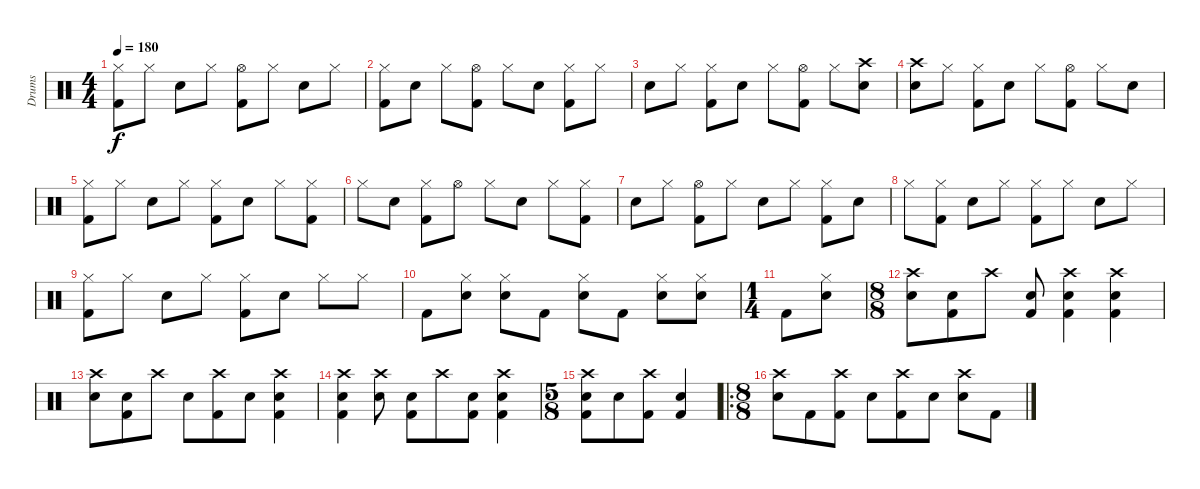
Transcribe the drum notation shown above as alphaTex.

\track ("Drums" "Drums") {instrument percussion}
\staff {score}
\articulation defaults
\ts (4 4)
\tempo 180
\clef neutral
\ks c
("Hi-Hat (closed)" "Kick (hit) 2").8{dy f} "Hi-Hat (closed)".8 "Electric Snare (hit)".8 "Hi-Hat (closed)".8 ("Hi-Hat (open)" "Kick (hit) 2").8 "Hi-Hat (closed)".8 "Electric Snare (hit)".8 "Hi-Hat (closed)".8 |
("Hi-Hat (closed)" "Kick (hit) 2").8 "Electric Snare (hit)".8 "Hi-Hat (closed)".8 ("Hi-Hat (open)" "Kick (hit) 2").8 "Hi-Hat (closed)".8 "Electric Snare (hit)".8 ("Hi-Hat (closed)" "Kick (hit) 2").8 "Hi-Hat (closed)".8 |
"Electric Snare (hit)".8 "Hi-Hat (closed)".8 ("Hi-Hat (closed)" "Kick (hit) 2").8 "Electric Snare (hit)".8 "Hi-Hat (closed)".8 ("Hi-Hat (open)" "Kick (hit) 2").8 "Hi-Hat (closed)".8 ("Crash high (hit)" "Electric Snare (hit)").8 |
("Crash high (hit)" "Electric Snare (hit)").8 "Hi-Hat (closed)".8 ("Hi-Hat (closed)" "Kick (hit) 2").8 "Electric Snare (hit)".8 "Hi-Hat (closed)".8 ("Hi-Hat (open)" "Kick (hit) 2").8 "Hi-Hat (closed)".8 "Electric Snare (hit)".8 |
("Hi-Hat (closed)" "Kick (hit) 2").8 "Hi-Hat (closed)".8 "Electric Snare (hit)".8 "Hi-Hat (closed)".8 ("Hi-Hat (closed)" "Kick (hit) 2").8 "Electric Snare (hit)".8 "Hi-Hat (closed)".8 ("Hi-Hat (closed)" "Kick (hit) 2").8 |
"Hi-Hat (closed)".8 "Electric Snare (hit)".8 ("Hi-Hat (closed)" "Kick (hit) 2").8 "Hi-Hat (open)".8 "Hi-Hat (closed)".8 "Electric Snare (hit)".8 "Hi-Hat (closed)".8 ("Hi-Hat (closed)" "Kick (hit) 2").8 |
"Electric Snare (hit)".8 "Hi-Hat (closed)".8 ("Hi-Hat (open)" "Kick (hit) 2").8 "Hi-Hat (closed)".8 "Electric Snare (hit)".8 "Hi-Hat (closed)".8 ("Hi-Hat (closed)" "Kick (hit) 2").8 "Electric Snare (hit)".8 |
"Hi-Hat (closed)".8 ("Hi-Hat (closed)" "Kick (hit) 2").8 "Electric Snare (hit)".8 "Hi-Hat (closed)".8 ("Hi-Hat (closed)" "Kick (hit) 2").8 "Hi-Hat (closed)".8 "Electric Snare (hit)".8 "Hi-Hat (closed)".8 |
("Hi-Hat (closed)" "Kick (hit) 2").8 "Hi-Hat (closed)".8 "Electric Snare (hit)".8 "Hi-Hat (closed)".8 ("Hi-Hat (closed)" "Kick (hit) 2").8 "Electric Snare (hit)".8 "Hi-Hat (closed)".8 "Hi-Hat (closed)".8 |
"Kick (hit) 2".8 ("Hi-Hat (closed)" "Electric Snare (hit)").8 ("Hi-Hat (closed)" "Electric Snare (hit)").8 "Kick (hit) 2".8 ("Hi-Hat (closed)" "Electric Snare (hit)").8 "Kick (hit) 2".8 ("Hi-Hat (closed)" "Electric Snare (hit)").8 ("Hi-Hat (closed)" "Electric Snare (hit)").8 |
\ts (1 4)
"Kick (hit) 2".8 ("Hi-Hat (closed)" "Electric Snare (hit)").8 |
\ts (8 8)
("Crash high (hit)" "Electric Snare (hit)").8 ("Electric Snare (hit)" "Kick (hit) 2").8 "Crash high (hit)".8 ("Electric Snare (hit)" "Kick (hit) 2").8 ("Crash high (hit)" "Electric Snare (hit)" "Kick (hit) 2").4 ("Crash high (hit)" "Electric Snare (hit)" "Kick (hit) 2").4 |
("Crash high (hit)" "Electric Snare (hit)").8 ("Electric Snare (hit)" "Kick (hit) 2").8 "Crash high (hit)".8 "Electric Snare (hit)".8 ("Crash high (hit)" "Kick (hit) 2").8 "Electric Snare (hit)".8 ("Crash high (hit)" "Electric Snare (hit)" "Kick (hit) 2").4 |
("Crash high (hit)" "Electric Snare (hit)" "Kick (hit) 2").4 ("Crash high (hit)" "Electric Snare (hit)").8 ("Electric Snare (hit)" "Kick (hit) 2").8 "Crash high (hit)".8 ("Electric Snare (hit)" "Kick (hit) 2").8 ("Crash high (hit)" "Electric Snare (hit)" "Kick (hit) 2").4 |
\ts (5 8)
("Crash high (hit)" "Electric Snare (hit)" "Kick (hit) 2").8 "Electric Snare (hit)".8 ("Crash high (hit)" "Kick (hit) 2").8 ("Electric Snare (hit)" "Kick (hit) 2").4 |
\ro
\ts (8 8)
("Crash high (hit)" "Electric Snare (hit)").8 "Kick (hit) 2".8 ("Crash high (hit)" "Kick (hit) 2").8 "Electric Snare (hit)".8 ("Crash high (hit)" "Kick (hit) 2").8 "Electric Snare (hit)".8 ("Crash high (hit)" "Electric Snare (hit)").8 "Kick (hit) 2".8
